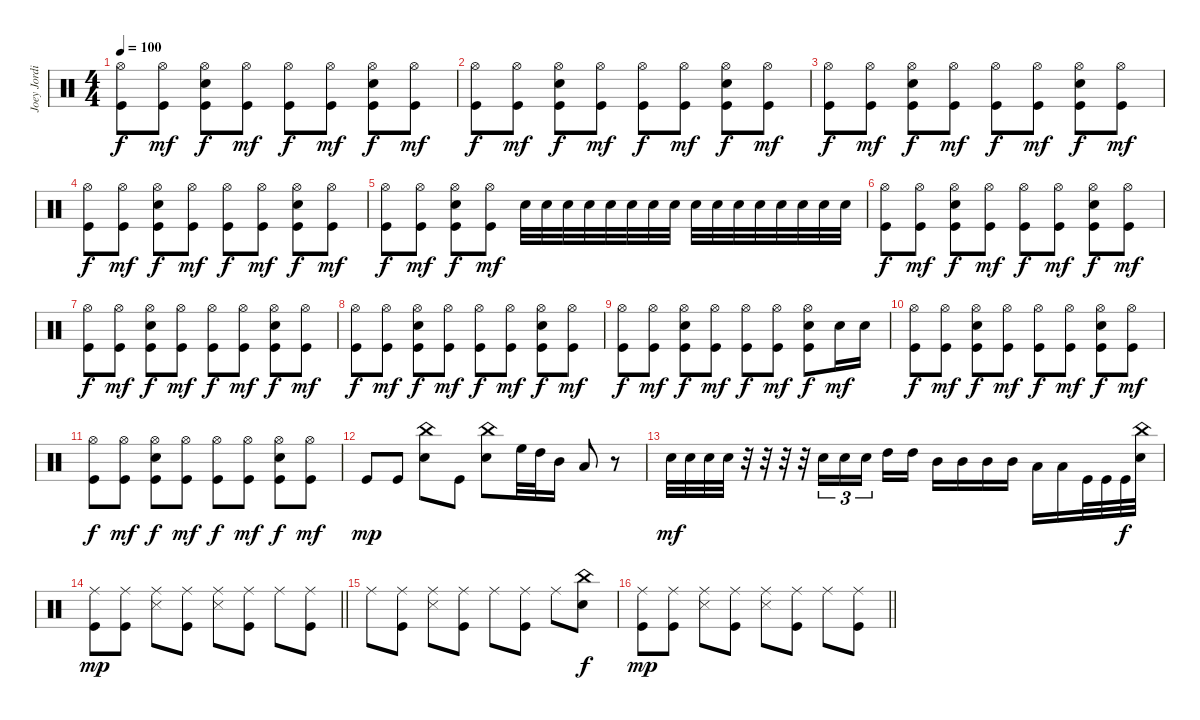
\track ("Joey Jordison" "Joey Jordi") {instrument percussion}
\staff {score}
\articulation defaults
\ts (4 4)
\tempo 100
\clef neutral
\ks c
("Hi-Hat (open)" "Kick (hit)").8{dy f} ("Hi-Hat (open)" "Kick (hit)").8{dy mf} ("Hi-Hat (open)" "Kick (hit)" "Snare (hit) 2").8{dy f} ("Hi-Hat (open)" "Kick (hit)").8{dy mf} ("Hi-Hat (open)" "Kick (hit)").8{dy f} ("Hi-Hat (open)" "Kick (hit)").8{dy mf} ("Hi-Hat (open)" "Kick (hit)" "Snare (hit) 2").8{dy f} ("Hi-Hat (open)" "Kick (hit)").8{dy mf} |
("Hi-Hat (open)" "Kick (hit)").8{dy f} ("Hi-Hat (open)" "Kick (hit)").8{dy mf} ("Hi-Hat (open)" "Kick (hit)" "Snare (hit) 2").8{dy f} ("Hi-Hat (open)" "Kick (hit)").8{dy mf} ("Hi-Hat (open)" "Kick (hit)").8{dy f} ("Hi-Hat (open)" "Kick (hit)").8{dy mf} ("Hi-Hat (open)" "Kick (hit)" "Snare (hit) 2").8{dy f} ("Hi-Hat (open)" "Kick (hit)").8{dy mf} |
("Hi-Hat (open)" "Kick (hit)").8{dy f} ("Hi-Hat (open)" "Kick (hit)").8{dy mf} ("Hi-Hat (open)" "Kick (hit)" "Snare (hit) 2").8{dy f} ("Hi-Hat (open)" "Kick (hit)").8{dy mf} ("Hi-Hat (open)" "Kick (hit)").8{dy f} ("Hi-Hat (open)" "Kick (hit)").8{dy mf} ("Hi-Hat (open)" "Kick (hit)" "Snare (hit) 2").8{dy f} ("Hi-Hat (open)" "Kick (hit)").8{dy mf} |
("Hi-Hat (open)" "Kick (hit)").8{dy f} ("Hi-Hat (open)" "Kick (hit)").8{dy mf} ("Hi-Hat (open)" "Kick (hit)" "Snare (hit) 2").8{dy f} ("Hi-Hat (open)" "Kick (hit)").8{dy mf} ("Hi-Hat (open)" "Kick (hit)").8{dy f} ("Hi-Hat (open)" "Kick (hit)").8{dy mf} ("Hi-Hat (open)" "Kick (hit)" "Snare (hit) 2").8{dy f} ("Hi-Hat (open)" "Kick (hit)").8{dy mf} |
("Hi-Hat (open)" "Kick (hit)").8{dy f} ("Hi-Hat (open)" "Kick (hit)").8{dy mf} ("Hi-Hat (open)" "Kick (hit)" "Snare (hit) 2").8{dy f} ("Hi-Hat (open)" "Kick (hit)").8{dy mf} "Snare (hit) 2".32 "Snare (hit) 2".32 "Snare (hit) 2".32 "Snare (hit) 2".32 "Snare (hit) 2".32 "Snare (hit) 2".32 "Snare (hit) 2".32 "Snare (hit) 2".32 "Snare (hit) 2".32 "Snare (hit) 2".32 "Snare (hit) 2".32 "Snare (hit) 2".32 "Snare (hit) 2".32 "Snare (hit) 2".32 "Snare (hit) 2".32 "Snare (hit) 2".32 |
("Hi-Hat (open)" "Kick (hit)").8{dy f} ("Hi-Hat (open)" "Kick (hit)").8{dy mf} ("Hi-Hat (open)" "Kick (hit)" "Snare (hit) 2").8{dy f} ("Hi-Hat (open)" "Kick (hit)").8{dy mf} ("Hi-Hat (open)" "Kick (hit)").8{dy f} ("Hi-Hat (open)" "Kick (hit)").8{dy mf} ("Hi-Hat (open)" "Kick (hit)" "Snare (hit) 2").8{dy f} ("Hi-Hat (open)" "Kick (hit)").8{dy mf} |
("Hi-Hat (open)" "Kick (hit)").8{dy f} ("Hi-Hat (open)" "Kick (hit)").8{dy mf} ("Hi-Hat (open)" "Kick (hit)" "Snare (hit) 2").8{dy f} ("Hi-Hat (open)" "Kick (hit)").8{dy mf} ("Hi-Hat (open)" "Kick (hit)").8{dy f} ("Hi-Hat (open)" "Kick (hit)").8{dy mf} ("Hi-Hat (open)" "Kick (hit)" "Snare (hit) 2").8{dy f} ("Hi-Hat (open)" "Kick (hit)").8{dy mf} |
("Hi-Hat (open)" "Kick (hit)").8{dy f} ("Hi-Hat (open)" "Kick (hit)").8{dy mf} ("Hi-Hat (open)" "Kick (hit)" "Snare (hit) 2").8{dy f} ("Hi-Hat (open)" "Kick (hit)").8{dy mf} ("Hi-Hat (open)" "Kick (hit)").8{dy f} ("Hi-Hat (open)" "Kick (hit)").8{dy mf} ("Hi-Hat (open)" "Kick (hit)" "Snare (hit) 2").8{dy f} ("Hi-Hat (open)" "Kick (hit)").8{dy mf} |
("Hi-Hat (open)" "Kick (hit)").8{dy f} ("Hi-Hat (open)" "Kick (hit)").8{dy mf} ("Hi-Hat (open)" "Kick (hit)" "Snare (hit) 2").8{dy f} ("Hi-Hat (open)" "Kick (hit)").8{dy mf} ("Hi-Hat (open)" "Kick (hit)").8{dy f} ("Hi-Hat (open)" "Kick (hit)").8{dy mf} ("Hi-Hat (open)" "Kick (hit)" "Snare (hit) 2").8{dy f} "Snare (hit) 2".16{dy mf} "Snare (hit) 2".16 |
("Hi-Hat (open)" "Kick (hit)").8{dy f} ("Hi-Hat (open)" "Kick (hit)").8{dy mf} ("Hi-Hat (open)" "Kick (hit)" "Snare (hit) 2").8{dy f} ("Hi-Hat (open)" "Kick (hit)").8{dy mf} ("Hi-Hat (open)" "Kick (hit)").8{dy f} ("Hi-Hat (open)" "Kick (hit)").8{dy mf} ("Hi-Hat (open)" "Kick (hit)" "Snare (hit) 2").8{dy f} ("Hi-Hat (open)" "Kick (hit)").8{dy mf} |
("Hi-Hat (open)" "Kick (hit)").8{dy f} ("Hi-Hat (open)" "Kick (hit)").8{dy mf} ("Hi-Hat (open)" "Kick (hit)" "Snare (hit) 2").8{dy f} ("Hi-Hat (open)" "Kick (hit)").8{dy mf} ("Hi-Hat (open)" "Kick (hit)").8{dy f} ("Hi-Hat (open)" "Kick (hit)").8{dy mf} ("Hi-Hat (open)" "Kick (hit)" "Snare (hit) 2").8{dy f} ("Hi-Hat (open)" "Kick (hit)").8{dy mf} |
"Kick (hit)".8{dy mp} "Kick (hit)".8 ("Snare (hit) 2" "China (hit)").8 "Kick (hit)".8 ("Snare (hit) 2" "China (hit)").8 "High Floor Tom (hit)".32 "High Tom (hit)".32 "Mid Tom (hit)".16 "Low Tom (hit)".8 r.8 |
"Snare (hit) 2".32{dy mf} "Snare (hit) 2".32 "Snare (hit) 2".32 "Snare (hit) 2".32 r.32 r.32 r.32 r.32 "Snare (hit) 2".16{tu (3 2)} "Snare (hit) 2".16{tu (3 2)} "Snare (hit) 2".16{tu (3 2) beam splitsecondary} "High Tom (hit)".16 "High Tom (hit)".16 "Mid Tom (hit)".16 "Mid Tom (hit)".16 "Mid Tom (hit)".16 "Mid Tom (hit)".16 "Low Tom (hit)".16 "Low Tom (hit)".16 "Kick (hit)".32 "Kick (hit)".32 "Kick (hit)".32{dy f} ("Snare (hit) 2" "China (hit)").32 |
\barLineRight lightlight
("Kick (hit)" "Ride (middle)").8{dy mp} ("Kick (hit)" "Ride (middle)").8 ("Snare (side stick) 3" "Ride (middle)").8 ("Kick (hit)" "Ride (middle)").8 ("Snare (side stick) 3" "Ride (middle)").8 ("Kick (hit)" "Ride (middle)").8 "Ride (middle)".8 ("Kick (hit)" "Ride (middle)").8 |
"Ride (middle)".8 ("Kick (hit)" "Ride (middle)").8 ("Snare (side stick) 3" "Ride (middle)").8 ("Kick (hit)" "Ride (middle)").8 "Ride (middle)".8 ("Kick (hit)" "Ride (middle)").8 "Ride (middle)".8 ("Snare (hit) 2" "China (hit)").8{dy f} |
\barLineRight lightlight
("Kick (hit)" "Ride (middle)").8{dy mp} ("Kick (hit)" "Ride (middle)").8 ("Snare (side stick) 3" "Ride (middle)").8 ("Kick (hit)" "Ride (middle)").8 ("Snare (side stick) 3" "Ride (middle)").8 ("Kick (hit)" "Ride (middle)").8 "Ride (middle)".8 ("Kick (hit)" "Ride (middle)").8
